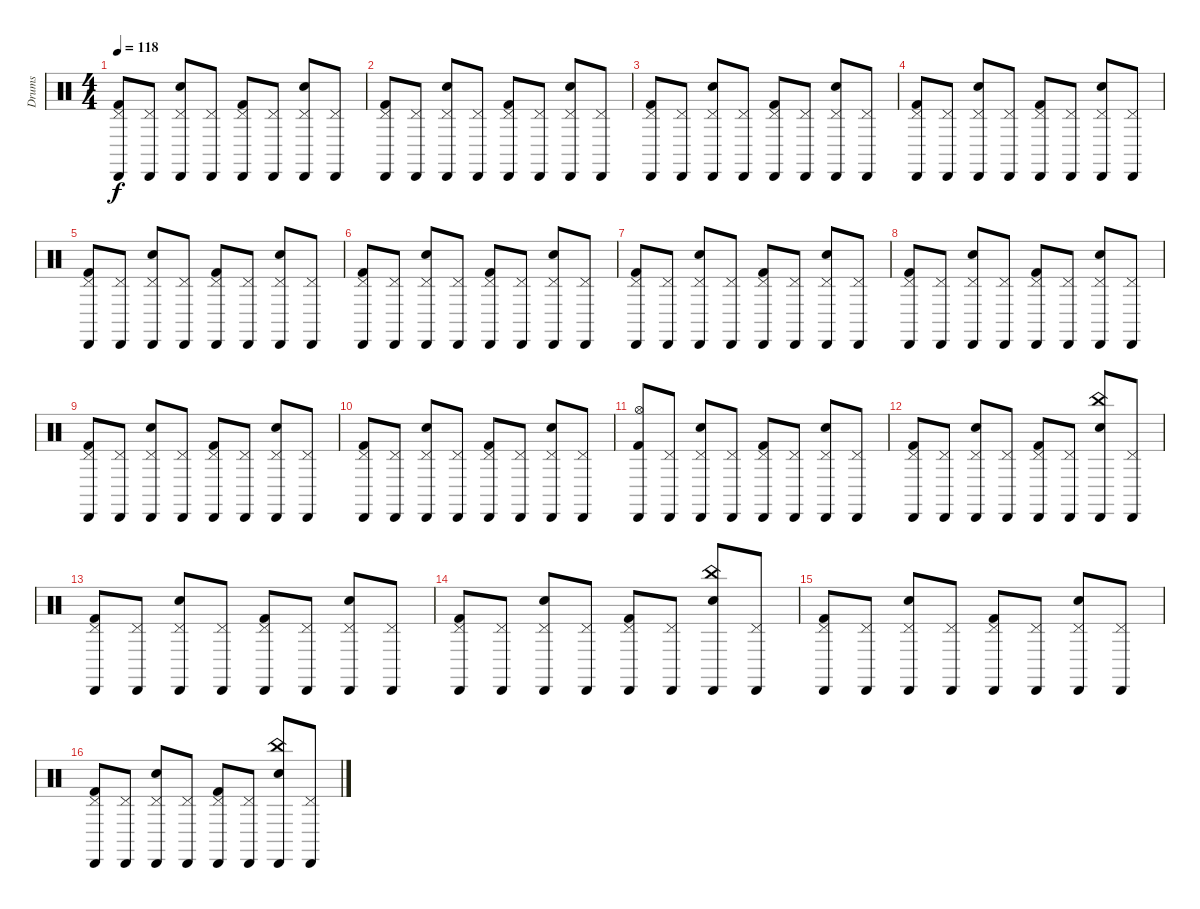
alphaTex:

\track ("Drums" "Drums") {instrument percussion}
\staff {score}
\articulation defaults
\ts (4 4)
\tempo 118
\clef neutral
\ks c
("Kick (hit) 2" "Pedal Hi-Hat (hit)" "Cabasa (hit)").8{dy f} ("Pedal Hi-Hat (hit)" "Cabasa (hit)").8 ("Pedal Hi-Hat (hit)" "Electric Snare (hit)" "Cabasa (hit)").8 ("Pedal Hi-Hat (hit)" "Cabasa (hit)").8 ("Kick (hit) 2" "Pedal Hi-Hat (hit)" "Cabasa (hit)").8 ("Pedal Hi-Hat (hit)" "Cabasa (hit)").8 ("Pedal Hi-Hat (hit)" "Electric Snare (hit)" "Cabasa (hit)").8 ("Pedal Hi-Hat (hit)" "Cabasa (hit)").8 |
("Kick (hit) 2" "Pedal Hi-Hat (hit)" "Cabasa (hit)").8 ("Pedal Hi-Hat (hit)" "Cabasa (hit)").8 ("Pedal Hi-Hat (hit)" "Electric Snare (hit)" "Cabasa (hit)").8 ("Pedal Hi-Hat (hit)" "Cabasa (hit)").8 ("Kick (hit) 2" "Pedal Hi-Hat (hit)" "Cabasa (hit)").8 ("Pedal Hi-Hat (hit)" "Cabasa (hit)").8 ("Pedal Hi-Hat (hit)" "Electric Snare (hit)" "Cabasa (hit)").8 ("Pedal Hi-Hat (hit)" "Cabasa (hit)").8 |
("Kick (hit) 2" "Pedal Hi-Hat (hit)" "Cabasa (hit)").8 ("Pedal Hi-Hat (hit)" "Cabasa (hit)").8 ("Pedal Hi-Hat (hit)" "Electric Snare (hit)" "Cabasa (hit)").8 ("Pedal Hi-Hat (hit)" "Cabasa (hit)").8 ("Kick (hit) 2" "Pedal Hi-Hat (hit)" "Cabasa (hit)").8 ("Pedal Hi-Hat (hit)" "Cabasa (hit)").8 ("Pedal Hi-Hat (hit)" "Electric Snare (hit)" "Cabasa (hit)").8 ("Pedal Hi-Hat (hit)" "Cabasa (hit)").8 |
("Kick (hit) 2" "Pedal Hi-Hat (hit)" "Cabasa (hit)").8 ("Pedal Hi-Hat (hit)" "Cabasa (hit)").8 ("Pedal Hi-Hat (hit)" "Electric Snare (hit)" "Cabasa (hit)").8 ("Pedal Hi-Hat (hit)" "Cabasa (hit)").8 ("Kick (hit) 2" "Pedal Hi-Hat (hit)" "Cabasa (hit)").8 ("Pedal Hi-Hat (hit)" "Cabasa (hit)").8 ("Pedal Hi-Hat (hit)" "Electric Snare (hit)" "Cabasa (hit)").8 ("Pedal Hi-Hat (hit)" "Cabasa (hit)").8 |
("Kick (hit) 2" "Pedal Hi-Hat (hit)" "Cabasa (hit)").8 ("Pedal Hi-Hat (hit)" "Cabasa (hit)").8 ("Pedal Hi-Hat (hit)" "Electric Snare (hit)" "Cabasa (hit)").8 ("Pedal Hi-Hat (hit)" "Cabasa (hit)").8 ("Kick (hit) 2" "Pedal Hi-Hat (hit)" "Cabasa (hit)").8 ("Pedal Hi-Hat (hit)" "Cabasa (hit)").8 ("Pedal Hi-Hat (hit)" "Electric Snare (hit)" "Cabasa (hit)").8 ("Pedal Hi-Hat (hit)" "Cabasa (hit)").8 |
("Kick (hit) 2" "Pedal Hi-Hat (hit)" "Cabasa (hit)").8 ("Pedal Hi-Hat (hit)" "Cabasa (hit)").8 ("Pedal Hi-Hat (hit)" "Electric Snare (hit)" "Cabasa (hit)").8 ("Pedal Hi-Hat (hit)" "Cabasa (hit)").8 ("Kick (hit) 2" "Pedal Hi-Hat (hit)" "Cabasa (hit)").8 ("Pedal Hi-Hat (hit)" "Cabasa (hit)").8 ("Pedal Hi-Hat (hit)" "Electric Snare (hit)" "Cabasa (hit)").8 ("Pedal Hi-Hat (hit)" "Cabasa (hit)").8 |
("Kick (hit) 2" "Pedal Hi-Hat (hit)" "Cabasa (hit)").8 ("Pedal Hi-Hat (hit)" "Cabasa (hit)").8 ("Pedal Hi-Hat (hit)" "Electric Snare (hit)" "Cabasa (hit)").8 ("Pedal Hi-Hat (hit)" "Cabasa (hit)").8 ("Kick (hit) 2" "Pedal Hi-Hat (hit)" "Cabasa (hit)").8 ("Pedal Hi-Hat (hit)" "Cabasa (hit)").8 ("Pedal Hi-Hat (hit)" "Electric Snare (hit)" "Cabasa (hit)").8 ("Pedal Hi-Hat (hit)" "Cabasa (hit)").8 |
("Kick (hit) 2" "Pedal Hi-Hat (hit)" "Cabasa (hit)").8 ("Pedal Hi-Hat (hit)" "Cabasa (hit)").8 ("Pedal Hi-Hat (hit)" "Electric Snare (hit)" "Cabasa (hit)").8 ("Pedal Hi-Hat (hit)" "Cabasa (hit)").8 ("Kick (hit) 2" "Pedal Hi-Hat (hit)" "Cabasa (hit)").8 ("Pedal Hi-Hat (hit)" "Cabasa (hit)").8 ("Pedal Hi-Hat (hit)" "Electric Snare (hit)" "Cabasa (hit)").8 ("Pedal Hi-Hat (hit)" "Cabasa (hit)").8 |
("Kick (hit) 2" "Pedal Hi-Hat (hit)" "Cabasa (hit)").8 ("Pedal Hi-Hat (hit)" "Cabasa (hit)").8 ("Pedal Hi-Hat (hit)" "Electric Snare (hit)" "Cabasa (hit)").8 ("Pedal Hi-Hat (hit)" "Cabasa (hit)").8 ("Kick (hit) 2" "Pedal Hi-Hat (hit)" "Cabasa (hit)").8 ("Pedal Hi-Hat (hit)" "Cabasa (hit)").8 ("Pedal Hi-Hat (hit)" "Electric Snare (hit)" "Cabasa (hit)").8 ("Pedal Hi-Hat (hit)" "Cabasa (hit)").8 |
("Kick (hit) 2" "Pedal Hi-Hat (hit)" "Cabasa (hit)").8 ("Pedal Hi-Hat (hit)" "Cabasa (hit)").8 ("Pedal Hi-Hat (hit)" "Electric Snare (hit)" "Cabasa (hit)").8 ("Pedal Hi-Hat (hit)" "Cabasa (hit)").8 ("Kick (hit) 2" "Pedal Hi-Hat (hit)" "Cabasa (hit)").8 ("Pedal Hi-Hat (hit)" "Cabasa (hit)").8 ("Pedal Hi-Hat (hit)" "Electric Snare (hit)" "Cabasa (hit)").8 ("Pedal Hi-Hat (hit)" "Cabasa (hit)").8 |
("Kick (hit) 2" "Hi-Hat (open)" "Cabasa (hit)").8 ("Pedal Hi-Hat (hit)" "Cabasa (hit)").8 ("Pedal Hi-Hat (hit)" "Electric Snare (hit)" "Cabasa (hit)").8 ("Pedal Hi-Hat (hit)" "Cabasa (hit)").8 ("Kick (hit) 2" "Pedal Hi-Hat (hit)" "Cabasa (hit)").8 ("Pedal Hi-Hat (hit)" "Cabasa (hit)").8 ("Pedal Hi-Hat (hit)" "Electric Snare (hit)" "Cabasa (hit)").8 ("Pedal Hi-Hat (hit)" "Cabasa (hit)").8 |
("Kick (hit) 2" "Pedal Hi-Hat (hit)" "Cabasa (hit)").8 ("Pedal Hi-Hat (hit)" "Cabasa (hit)").8 ("Pedal Hi-Hat (hit)" "Electric Snare (hit)" "Cabasa (hit)").8 ("Pedal Hi-Hat (hit)" "Cabasa (hit)").8 ("Kick (hit) 2" "Pedal Hi-Hat (hit)" "Cabasa (hit)").8 ("Pedal Hi-Hat (hit)" "Cabasa (hit)").8 ("China (hit)" "Electric Snare (hit)" "Cabasa (hit)").8 ("Pedal Hi-Hat (hit)" "Cabasa (hit)").8 |
("Kick (hit) 2" "Pedal Hi-Hat (hit)" "Cabasa (hit)").8 ("Pedal Hi-Hat (hit)" "Cabasa (hit)").8 ("Pedal Hi-Hat (hit)" "Electric Snare (hit)" "Cabasa (hit)").8 ("Pedal Hi-Hat (hit)" "Cabasa (hit)").8 ("Kick (hit) 2" "Pedal Hi-Hat (hit)" "Cabasa (hit)").8 ("Pedal Hi-Hat (hit)" "Cabasa (hit)").8 ("Pedal Hi-Hat (hit)" "Electric Snare (hit)" "Cabasa (hit)").8 ("Pedal Hi-Hat (hit)" "Cabasa (hit)").8 |
("Kick (hit) 2" "Pedal Hi-Hat (hit)" "Cabasa (hit)").8 ("Pedal Hi-Hat (hit)" "Cabasa (hit)").8 ("Pedal Hi-Hat (hit)" "Electric Snare (hit)" "Cabasa (hit)").8 ("Pedal Hi-Hat (hit)" "Cabasa (hit)").8 ("Kick (hit) 2" "Pedal Hi-Hat (hit)" "Cabasa (hit)").8 ("Pedal Hi-Hat (hit)" "Cabasa (hit)").8 ("China (hit)" "Electric Snare (hit)" "Cabasa (hit)").8 ("Pedal Hi-Hat (hit)" "Cabasa (hit)").8 |
("Kick (hit) 2" "Pedal Hi-Hat (hit)" "Cabasa (hit)").8 ("Pedal Hi-Hat (hit)" "Cabasa (hit)").8 ("Pedal Hi-Hat (hit)" "Electric Snare (hit)" "Cabasa (hit)").8 ("Pedal Hi-Hat (hit)" "Cabasa (hit)").8 ("Kick (hit) 2" "Pedal Hi-Hat (hit)" "Cabasa (hit)").8 ("Pedal Hi-Hat (hit)" "Cabasa (hit)").8 ("Pedal Hi-Hat (hit)" "Electric Snare (hit)" "Cabasa (hit)").8 ("Pedal Hi-Hat (hit)" "Cabasa (hit)").8 |
("Kick (hit) 2" "Pedal Hi-Hat (hit)" "Cabasa (hit)").8 ("Pedal Hi-Hat (hit)" "Cabasa (hit)").8 ("Pedal Hi-Hat (hit)" "Electric Snare (hit)" "Cabasa (hit)").8 ("Pedal Hi-Hat (hit)" "Cabasa (hit)").8 ("Kick (hit) 2" "Pedal Hi-Hat (hit)" "Cabasa (hit)").8 ("Pedal Hi-Hat (hit)" "Cabasa (hit)").8 ("China (hit)" "Electric Snare (hit)" "Cabasa (hit)").8 ("Pedal Hi-Hat (hit)" "Cabasa (hit)").8
